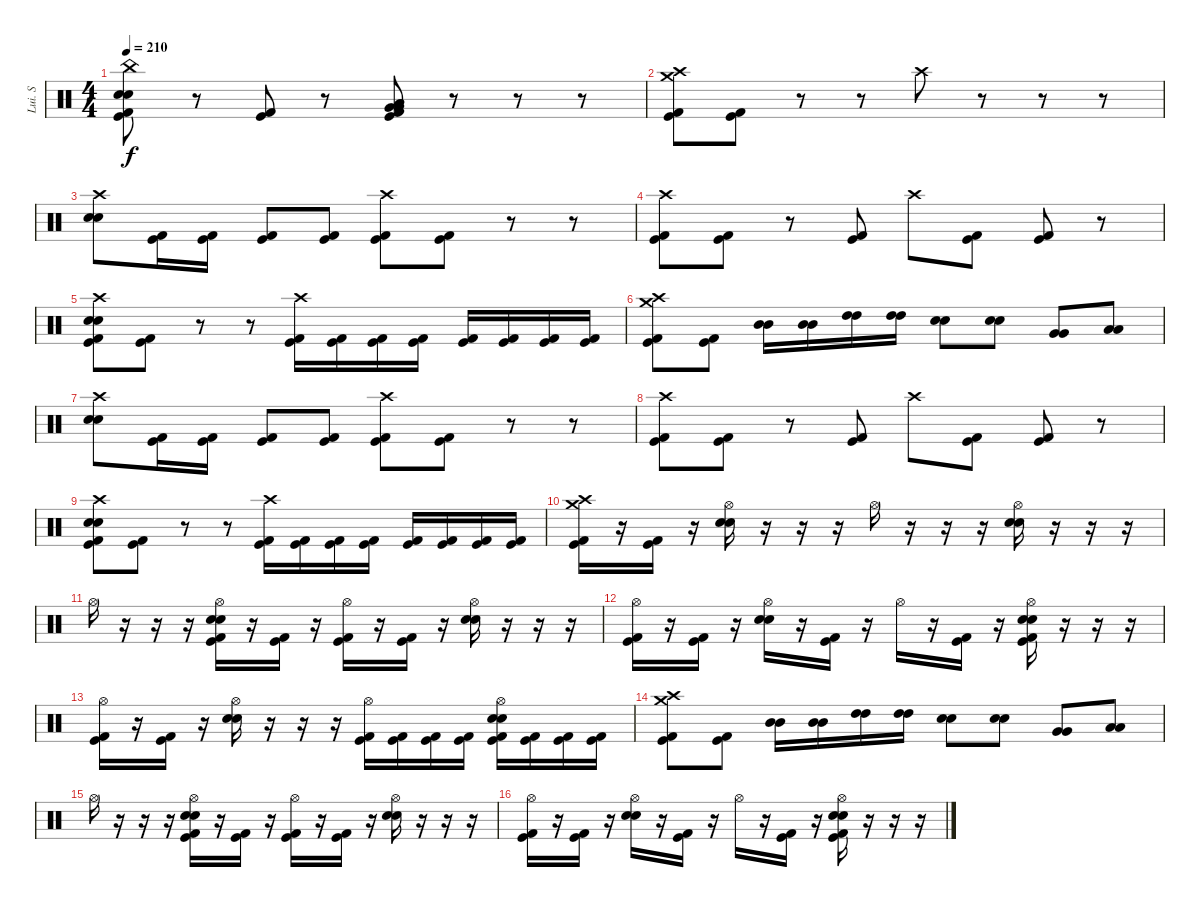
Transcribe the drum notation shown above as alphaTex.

\track ("Lui. S" "Lui. S") {instrument percussion}
\staff {score}
\articulation defaults
\ts (4 4)
\tempo 210
\clef neutral
\ks c
("China (hit)" "Electric Snare (hit)" "Snare (hit) 2" "Kick (hit) 2" "Kick (hit)").8{dy f} r.8 ("Kick (hit) 2" "Kick (hit)").8 r.8 ("Very Low Tom (hit)" "Very Low Tom (hit)" "Low Floor Tom (hit)" "Low Floor Tom (hit)" "Kick (hit) 2" "Kick (hit)").8 r.8 r.8 r.8 |
("Crash high (hit)" "Crash medium (hit)" "Kick (hit) 2" "Kick (hit)").8 ("Kick (hit) 2" "Kick (hit)").8 r.8 r.8 "Crash high (hit)".8 r.8 r.8 r.8 |
("Crash high (hit)" "Snare (hit) 2" "Electric Snare (hit)").8 ("Kick (hit) 2" "Kick (hit)").16 ("Kick (hit) 2" "Kick (hit)").16 ("Kick (hit) 2" "Kick (hit)").8 ("Kick (hit) 2" "Kick (hit)").8 ("Crash high (hit)" "Kick (hit) 2" "Kick (hit)").8 ("Kick (hit) 2" "Kick (hit)").8 r.8 r.8 |
("Crash high (hit)" "Kick (hit) 2" "Kick (hit)").8 ("Kick (hit) 2" "Kick (hit)").8 r.8 ("Kick (hit) 2" "Kick (hit)").8 "Crash high (hit)".8 ("Kick (hit) 2" "Kick (hit)").8 ("Kick (hit) 2" "Kick (hit)").8 r.8 |
("Crash high (hit)" "Electric Snare (hit)" "Snare (hit) 2" "Kick (hit) 2" "Kick (hit)").8 ("Kick (hit) 2" "Kick (hit)").8 r.8 r.8 ("Crash high (hit)" "Kick (hit) 2" "Kick (hit)").16 ("Kick (hit) 2" "Kick (hit)").16 ("Kick (hit) 2" "Kick (hit)").16 ("Kick (hit) 2" "Kick (hit)").16 ("Kick (hit) 2" "Kick (hit)").16 ("Kick (hit) 2" "Kick (hit)").16 ("Kick (hit) 2" "Kick (hit)").16 ("Kick (hit) 2" "Kick (hit)").16 |
("Crash high (hit)" "Crash medium (hit)" "Kick (hit) 2" "Kick (hit)").8 ("Kick (hit) 2" "Kick (hit)").8 ("Mid Tom (hit)" "Mid Tom (hit)").16 ("Mid Tom (hit)" "Mid Tom (hit)").16 ("High Tom (hit)" "High Tom (hit)").16 ("High Tom (hit)" "High Tom (hit)").16 ("Snare (hit) 2" "Electric Snare (hit)").8 ("Snare (hit) 2" "Electric Snare (hit)").8 ("Very Low Tom (hit)" "Very Low Tom (hit)").8 ("Low Floor Tom (hit)" "Low Floor Tom (hit)").8 |
("Crash high (hit)" "Snare (hit) 2" "Electric Snare (hit)").8 ("Kick (hit) 2" "Kick (hit)").16 ("Kick (hit) 2" "Kick (hit)").16 ("Kick (hit) 2" "Kick (hit)").8 ("Kick (hit) 2" "Kick (hit)").8 ("Crash high (hit)" "Kick (hit) 2" "Kick (hit)").8 ("Kick (hit) 2" "Kick (hit)").8 r.8 r.8 |
("Crash high (hit)" "Kick (hit) 2" "Kick (hit)").8 ("Kick (hit) 2" "Kick (hit)").8 r.8 ("Kick (hit) 2" "Kick (hit)").8 "Crash high (hit)".8 ("Kick (hit) 2" "Kick (hit)").8 ("Kick (hit) 2" "Kick (hit)").8 r.8 |
("Crash high (hit)" "Electric Snare (hit)" "Snare (hit) 2" "Kick (hit) 2" "Kick (hit)").8 ("Kick (hit) 2" "Kick (hit)").8 r.8 r.8 ("Crash high (hit)" "Kick (hit) 2" "Kick (hit)").16 ("Kick (hit) 2" "Kick (hit)").16 ("Kick (hit) 2" "Kick (hit)").16 ("Kick (hit) 2" "Kick (hit)").16 ("Kick (hit) 2" "Kick (hit)").16 ("Kick (hit) 2" "Kick (hit)").16 ("Kick (hit) 2" "Kick (hit)").16 ("Kick (hit) 2" "Kick (hit)").16 |
("Crash high (hit)" "Crash medium (hit)" "Kick (hit)" "Kick (hit) 2").16 r.16 ("Kick (hit) 2" "Kick (hit)").16 r.16 ("Hi-Hat (open)" "Electric Snare (hit)" "Snare (hit) 2").16 r.16 r.16 r.16 "Hi-Hat (open)".16 r.16 r.16 r.16 ("Hi-Hat (open)" "Electric Snare (hit)" "Snare (hit) 2").16 r.16 r.16 r.16 |
"Hi-Hat (open)".16 r.16 r.16 r.16 ("Hi-Hat (open)" "Electric Snare (hit)" "Snare (hit) 2" "Kick (hit) 2" "Kick (hit)").16 r.16 ("Kick (hit) 2" "Kick (hit)").16 r.16 ("Hi-Hat (open)" "Kick (hit) 2" "Kick (hit)").16 r.16 ("Kick (hit) 2" "Kick (hit)").16 r.16 ("Hi-Hat (open)" "Electric Snare (hit)" "Snare (hit) 2").16 r.16 r.16 r.16 |
("Hi-Hat (open)" "Kick (hit) 2" "Kick (hit)").16 r.16 ("Kick (hit) 2" "Kick (hit)").16 r.16 ("Hi-Hat (open)" "Electric Snare (hit)" "Snare (hit) 2").16 r.16 ("Kick (hit) 2" "Kick (hit)").16 r.16 "Hi-Hat (open)".16 r.16 ("Kick (hit) 2" "Kick (hit)").16 r.16 ("Hi-Hat (open)" "Electric Snare (hit)" "Snare (hit) 2" "Kick (hit) 2" "Kick (hit)").16 r.16 r.16 r.16 |
("Hi-Hat (open)" "Kick (hit) 2" "Kick (hit)").16 r.16 ("Kick (hit) 2" "Kick (hit)").16 r.16 ("Hi-Hat (open)" "Electric Snare (hit)" "Snare (hit) 2").16 r.16 r.16 r.16 ("Hi-Hat (open)" "Kick (hit) 2" "Kick (hit)").16 ("Kick (hit) 2" "Kick (hit)").16 ("Kick (hit) 2" "Kick (hit)").16 ("Kick (hit) 2" "Kick (hit)").16 ("Hi-Hat (open)" "Electric Snare (hit)" "Snare (hit) 2" "Kick (hit) 2" "Kick (hit)").16 ("Kick (hit) 2" "Kick (hit)").16 ("Kick (hit) 2" "Kick (hit)").16 ("Kick (hit) 2" "Kick (hit)").16 |
("Crash high (hit)" "Crash medium (hit)" "Kick (hit) 2" "Kick (hit)").8 ("Kick (hit) 2" "Kick (hit)").8 ("Mid Tom (hit)" "Mid Tom (hit)").16 ("Mid Tom (hit)" "Mid Tom (hit)").16 ("High Tom (hit)" "High Tom (hit)").16 ("High Tom (hit)" "High Tom (hit)").16 ("Snare (hit) 2" "Electric Snare (hit)").8 ("Snare (hit) 2" "Electric Snare (hit)").8 ("Very Low Tom (hit)" "Very Low Tom (hit)").8 ("Low Floor Tom (hit)" "Low Floor Tom (hit)").8 |
"Hi-Hat (open)".16 r.16 r.16 r.16 ("Hi-Hat (open)" "Electric Snare (hit)" "Snare (hit) 2" "Kick (hit) 2" "Kick (hit)").16 r.16 ("Kick (hit) 2" "Kick (hit)").16 r.16 ("Hi-Hat (open)" "Kick (hit) 2" "Kick (hit)").16 r.16 ("Kick (hit) 2" "Kick (hit)").16 r.16 ("Hi-Hat (open)" "Electric Snare (hit)" "Snare (hit) 2").16 r.16 r.16 r.16 |
("Hi-Hat (open)" "Kick (hit) 2" "Kick (hit)").16 r.16 ("Kick (hit) 2" "Kick (hit)").16 r.16 ("Hi-Hat (open)" "Electric Snare (hit)" "Snare (hit) 2").16 r.16 ("Kick (hit) 2" "Kick (hit)").16 r.16 "Hi-Hat (open)".16 r.16 ("Kick (hit) 2" "Kick (hit)").16 r.16 ("Hi-Hat (open)" "Electric Snare (hit)" "Snare (hit) 2" "Kick (hit) 2" "Kick (hit)").16 r.16 r.16 r.16
